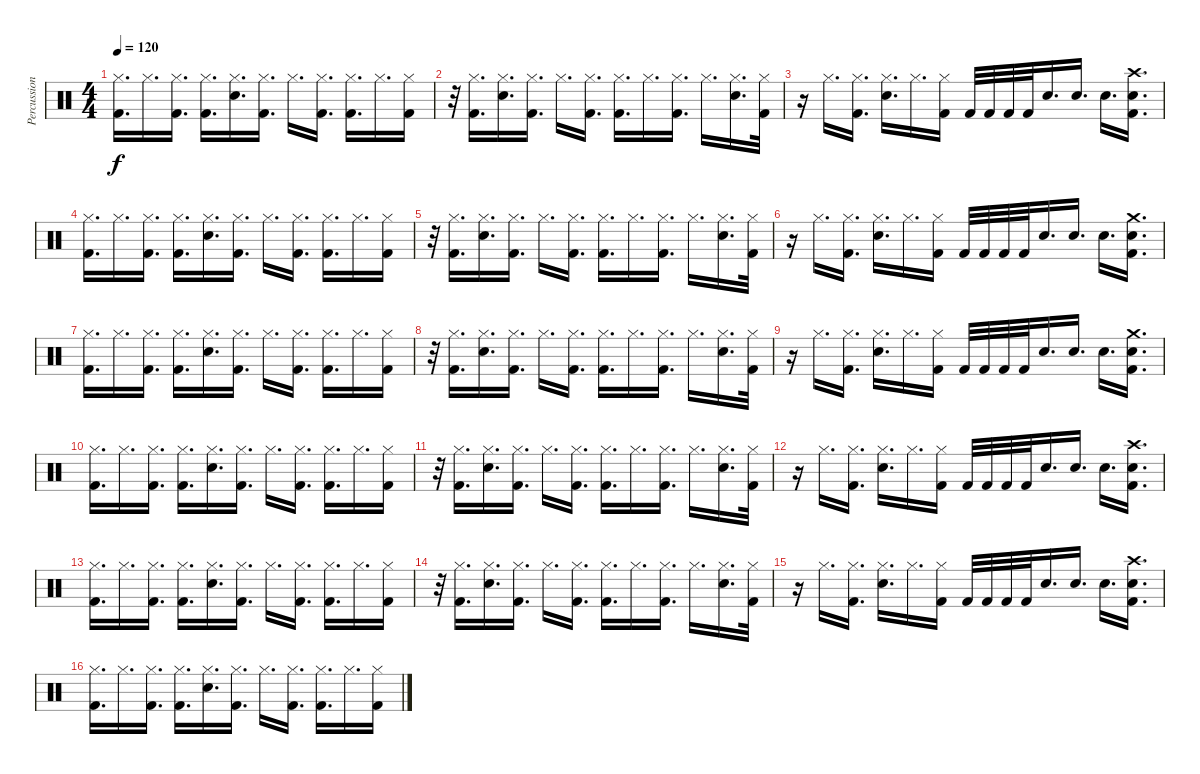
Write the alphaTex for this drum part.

\track ("Percussion" "Percussion") {instrument percussion}
\staff {score}
\articulation defaults
\ts (4 4)
\tempo 120
\clef neutral
\ks c
("Hi-Hat (closed)" "Kick (hit) 2").16{d dy f} "Hi-Hat (closed)".16{d} ("Hi-Hat (closed)" "Kick (hit) 2").16{d} ("Hi-Hat (closed)" "Kick (hit) 2").16{d} ("Hi-Hat (closed)" "Electric Snare (hit)").16{d} ("Hi-Hat (closed)" "Kick (hit) 2").16{d} "Hi-Hat (closed)".16{d} ("Hi-Hat (closed)" "Kick (hit) 2").16{d} ("Hi-Hat (closed)" "Kick (hit) 2").16{d} "Hi-Hat (closed)".16{d} ("Hi-Hat (closed)" "Kick (hit) 2").16 |
r.32 ("Hi-Hat (closed)" "Kick (hit) 2").16{d} ("Hi-Hat (closed)" "Electric Snare (hit)").16{d} ("Hi-Hat (closed)" "Kick (hit) 2").16{d} "Hi-Hat (closed)".16{d} ("Hi-Hat (closed)" "Kick (hit) 2").16{d} ("Hi-Hat (closed)" "Kick (hit) 2").16{d} "Hi-Hat (closed)".16{d} ("Hi-Hat (closed)" "Kick (hit) 2").16{d} "Hi-Hat (closed)".16{d} ("Hi-Hat (closed)" "Electric Snare (hit)").16{d} ("Hi-Hat (closed)" "Kick (hit) 2").32 |
r.16 "Hi-Hat (closed)".16{d} ("Hi-Hat (closed)" "Kick (hit) 2").16{d} ("Hi-Hat (closed)" "Electric Snare (hit)").16{d} "Hi-Hat (closed)".16{d} ("Hi-Hat (closed)" "Kick (hit) 2").16 "Kick (hit) 2".32 "Kick (hit) 2".32 "Kick (hit) 2".32 "Kick (hit) 2".32 "Electric Snare (hit)".16{d} "Electric Snare (hit)".16{d} "Electric Snare (hit)".16{d} ("Crash high (hit)" "Electric Snare (hit)" "Kick (hit) 2").16{d} |
("Hi-Hat (closed)" "Kick (hit) 2").16{d} "Hi-Hat (closed)".16{d} ("Hi-Hat (closed)" "Kick (hit) 2").16{d} ("Hi-Hat (closed)" "Kick (hit) 2").16{d} ("Hi-Hat (closed)" "Electric Snare (hit)").16{d} ("Hi-Hat (closed)" "Kick (hit) 2").16{d} "Hi-Hat (closed)".16{d} ("Hi-Hat (closed)" "Kick (hit) 2").16{d} ("Hi-Hat (closed)" "Kick (hit) 2").16{d} "Hi-Hat (closed)".16{d} ("Hi-Hat (closed)" "Kick (hit) 2").16 |
r.32 ("Hi-Hat (closed)" "Kick (hit) 2").16{d} ("Hi-Hat (closed)" "Electric Snare (hit)").16{d} ("Hi-Hat (closed)" "Kick (hit) 2").16{d} "Hi-Hat (closed)".16{d} ("Hi-Hat (closed)" "Kick (hit) 2").16{d} ("Hi-Hat (closed)" "Kick (hit) 2").16{d} "Hi-Hat (closed)".16{d} ("Hi-Hat (closed)" "Kick (hit) 2").16{d} "Hi-Hat (closed)".16{d} ("Hi-Hat (closed)" "Electric Snare (hit)").16{d} ("Hi-Hat (closed)" "Kick (hit) 2").32 |
r.16 "Hi-Hat (closed)".16{d} ("Hi-Hat (closed)" "Kick (hit) 2").16{d} ("Hi-Hat (closed)" "Electric Snare (hit)").16{d} "Hi-Hat (closed)".16{d} ("Hi-Hat (closed)" "Kick (hit) 2").16 "Kick (hit) 2".32 "Kick (hit) 2".32 "Kick (hit) 2".32 "Kick (hit) 2".32 "Electric Snare (hit)".16{d} "Electric Snare (hit)".16{d} "Electric Snare (hit)".16{d} ("Crash medium (hit)" "Electric Snare (hit)" "Kick (hit) 2").16{d} |
("Hi-Hat (closed)" "Kick (hit) 2").16{d} "Hi-Hat (closed)".16{d} ("Hi-Hat (closed)" "Kick (hit) 2").16{d} ("Hi-Hat (closed)" "Kick (hit) 2").16{d} ("Hi-Hat (closed)" "Electric Snare (hit)").16{d} ("Hi-Hat (closed)" "Kick (hit) 2").16{d} "Hi-Hat (closed)".16{d} ("Hi-Hat (closed)" "Kick (hit) 2").16{d} ("Hi-Hat (closed)" "Kick (hit) 2").16{d} "Hi-Hat (closed)".16{d} ("Hi-Hat (closed)" "Kick (hit) 2").16 |
r.32 ("Hi-Hat (closed)" "Kick (hit) 2").16{d} ("Hi-Hat (closed)" "Electric Snare (hit)").16{d} ("Hi-Hat (closed)" "Kick (hit) 2").16{d} "Hi-Hat (closed)".16{d} ("Hi-Hat (closed)" "Kick (hit) 2").16{d} ("Hi-Hat (closed)" "Kick (hit) 2").16{d} "Hi-Hat (closed)".16{d} ("Hi-Hat (closed)" "Kick (hit) 2").16{d} "Hi-Hat (closed)".16{d} ("Hi-Hat (closed)" "Electric Snare (hit)").16{d} ("Hi-Hat (closed)" "Kick (hit) 2").32 |
r.16 "Hi-Hat (closed)".16{d} ("Hi-Hat (closed)" "Kick (hit) 2").16{d} ("Hi-Hat (closed)" "Electric Snare (hit)").16{d} "Hi-Hat (closed)".16{d} ("Hi-Hat (closed)" "Kick (hit) 2").16 "Kick (hit) 2".32 "Kick (hit) 2".32 "Kick (hit) 2".32 "Kick (hit) 2".32 "Electric Snare (hit)".16{d} "Electric Snare (hit)".16{d} "Electric Snare (hit)".16{d} ("Crash medium (hit)" "Electric Snare (hit)" "Kick (hit) 2").16{d} |
("Hi-Hat (closed)" "Kick (hit) 2").16{d} "Hi-Hat (closed)".16{d} ("Hi-Hat (closed)" "Kick (hit) 2").16{d} ("Hi-Hat (closed)" "Kick (hit) 2").16{d} ("Hi-Hat (closed)" "Electric Snare (hit)").16{d} ("Hi-Hat (closed)" "Kick (hit) 2").16{d} "Hi-Hat (closed)".16{d} ("Hi-Hat (closed)" "Kick (hit) 2").16{d} ("Hi-Hat (closed)" "Kick (hit) 2").16{d} "Hi-Hat (closed)".16{d} ("Hi-Hat (closed)" "Kick (hit) 2").16 |
r.32 ("Hi-Hat (closed)" "Kick (hit) 2").16{d} ("Hi-Hat (closed)" "Electric Snare (hit)").16{d} ("Hi-Hat (closed)" "Kick (hit) 2").16{d} "Hi-Hat (closed)".16{d} ("Hi-Hat (closed)" "Kick (hit) 2").16{d} ("Hi-Hat (closed)" "Kick (hit) 2").16{d} "Hi-Hat (closed)".16{d} ("Hi-Hat (closed)" "Kick (hit) 2").16{d} "Hi-Hat (closed)".16{d} ("Hi-Hat (closed)" "Electric Snare (hit)").16{d} ("Hi-Hat (closed)" "Kick (hit) 2").32 |
r.16 "Hi-Hat (closed)".16{d} ("Hi-Hat (closed)" "Kick (hit) 2").16{d} ("Hi-Hat (closed)" "Electric Snare (hit)").16{d} "Hi-Hat (closed)".16{d} ("Hi-Hat (closed)" "Kick (hit) 2").16 "Kick (hit) 2".32 "Kick (hit) 2".32 "Kick (hit) 2".32 "Kick (hit) 2".32 "Electric Snare (hit)".16{d} "Electric Snare (hit)".16{d} "Electric Snare (hit)".16{d} ("Crash high (hit)" "Electric Snare (hit)" "Kick (hit) 2").16{d} |
("Hi-Hat (closed)" "Kick (hit) 2").16{d} "Hi-Hat (closed)".16{d} ("Hi-Hat (closed)" "Kick (hit) 2").16{d} ("Hi-Hat (closed)" "Kick (hit) 2").16{d} ("Hi-Hat (closed)" "Electric Snare (hit)").16{d} ("Hi-Hat (closed)" "Kick (hit) 2").16{d} "Hi-Hat (closed)".16{d} ("Hi-Hat (closed)" "Kick (hit) 2").16{d} ("Hi-Hat (closed)" "Kick (hit) 2").16{d} "Hi-Hat (closed)".16{d} ("Hi-Hat (closed)" "Kick (hit) 2").16 |
r.32 ("Hi-Hat (closed)" "Kick (hit) 2").16{d} ("Hi-Hat (closed)" "Electric Snare (hit)").16{d} ("Hi-Hat (closed)" "Kick (hit) 2").16{d} "Hi-Hat (closed)".16{d} ("Hi-Hat (closed)" "Kick (hit) 2").16{d} ("Hi-Hat (closed)" "Kick (hit) 2").16{d} "Hi-Hat (closed)".16{d} ("Hi-Hat (closed)" "Kick (hit) 2").16{d} "Hi-Hat (closed)".16{d} ("Hi-Hat (closed)" "Electric Snare (hit)").16{d} ("Hi-Hat (closed)" "Kick (hit) 2").32 |
r.16 "Hi-Hat (closed)".16{d} ("Hi-Hat (closed)" "Kick (hit) 2").16{d} ("Hi-Hat (closed)" "Electric Snare (hit)").16{d} "Hi-Hat (closed)".16{d} ("Hi-Hat (closed)" "Kick (hit) 2").16 "Kick (hit) 2".32 "Kick (hit) 2".32 "Kick (hit) 2".32 "Kick (hit) 2".32 "Electric Snare (hit)".16{d} "Electric Snare (hit)".16{d} "Electric Snare (hit)".16{d} ("Crash high (hit)" "Electric Snare (hit)" "Kick (hit) 2").16{d} |
("Hi-Hat (closed)" "Kick (hit) 2").16{d} "Hi-Hat (closed)".16{d} ("Hi-Hat (closed)" "Kick (hit) 2").16{d} ("Hi-Hat (closed)" "Kick (hit) 2").16{d} ("Hi-Hat (closed)" "Electric Snare (hit)").16{d} ("Hi-Hat (closed)" "Kick (hit) 2").16{d} "Hi-Hat (closed)".16{d} ("Hi-Hat (closed)" "Kick (hit) 2").16{d} ("Hi-Hat (closed)" "Kick (hit) 2").16{d} "Hi-Hat (closed)".16{d} ("Hi-Hat (closed)" "Kick (hit) 2").16
